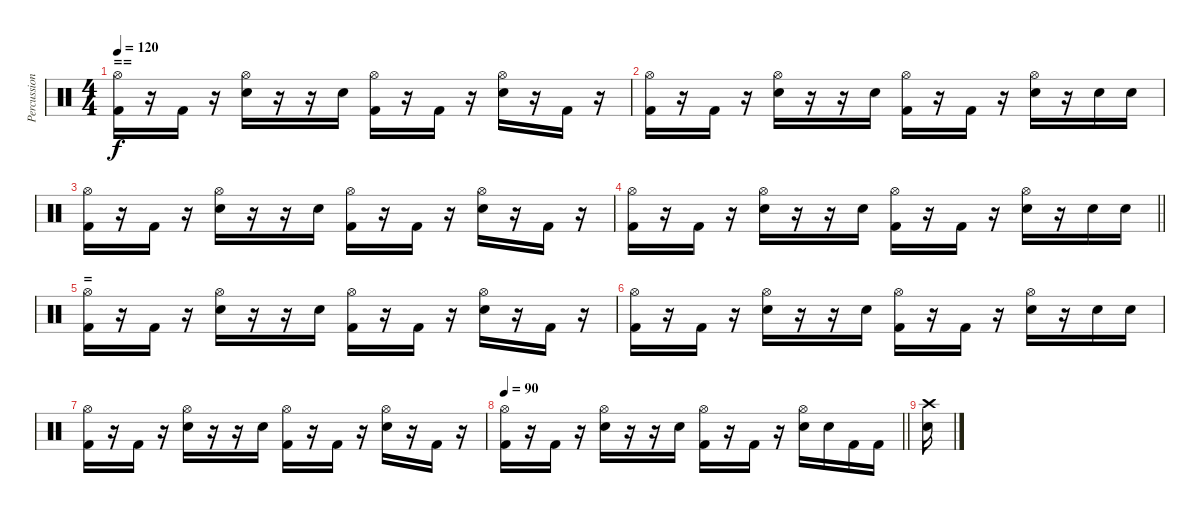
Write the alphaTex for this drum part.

\track ("Percussion" "Percussion") {instrument percussion}
\staff {score}
\articulation defaults
\ts (4 4)
\section ("" "==")
\tempo 120
\clef neutral
\ks c
("Kick (hit) 2" "Hi-Hat (open)").16{dy f} r.16 "Kick (hit) 2".16 r.16 ("Electric Snare (hit)" "Hi-Hat (open)").16 r.16 r.16 "Electric Snare (hit)".16 ("Kick (hit) 2" "Hi-Hat (open)").16 r.16 "Kick (hit) 2".16 r.16 ("Electric Snare (hit)" "Hi-Hat (open)").16 r.16 "Kick (hit) 2".16 r.16 |
("Kick (hit) 2" "Hi-Hat (open)").16 r.16 "Kick (hit) 2".16 r.16 ("Electric Snare (hit)" "Hi-Hat (open)").16 r.16 r.16 "Electric Snare (hit)".16 ("Kick (hit) 2" "Hi-Hat (open)").16 r.16 "Kick (hit) 2".16 r.16 ("Electric Snare (hit)" "Hi-Hat (open)").16 r.16 "Electric Snare (hit)".16 "Electric Snare (hit)".16 |
("Kick (hit) 2" "Hi-Hat (open)").16 r.16 "Kick (hit) 2".16 r.16 ("Electric Snare (hit)" "Hi-Hat (open)").16 r.16 r.16 "Electric Snare (hit)".16 ("Kick (hit) 2" "Hi-Hat (open)").16 r.16 "Kick (hit) 2".16 r.16 ("Electric Snare (hit)" "Hi-Hat (open)").16 r.16 "Kick (hit) 2".16 r.16 |
\barLineRight lightlight
("Kick (hit) 2" "Hi-Hat (open)").16 r.16 "Kick (hit) 2".16 r.16 ("Electric Snare (hit)" "Hi-Hat (open)").16 r.16 r.16 "Electric Snare (hit)".16 ("Kick (hit) 2" "Hi-Hat (open)").16 r.16 "Kick (hit) 2".16 r.16 ("Electric Snare (hit)" "Hi-Hat (open)").16 r.16 "Electric Snare (hit)".16 "Electric Snare (hit)".16 |
\section ("" "=")
("Kick (hit) 2" "Hi-Hat (open)").16 r.16 "Kick (hit) 2".16 r.16 ("Electric Snare (hit)" "Hi-Hat (open)").16 r.16 r.16 "Electric Snare (hit)".16 ("Kick (hit) 2" "Hi-Hat (open)").16 r.16 "Kick (hit) 2".16 r.16 ("Electric Snare (hit)" "Hi-Hat (open)").16 r.16 "Kick (hit) 2".16 r.16 |
("Kick (hit) 2" "Hi-Hat (open)").16 r.16 "Kick (hit) 2".16 r.16 ("Electric Snare (hit)" "Hi-Hat (open)").16 r.16 r.16 "Electric Snare (hit)".16 ("Kick (hit) 2" "Hi-Hat (open)").16 r.16 "Kick (hit) 2".16 r.16 ("Electric Snare (hit)" "Hi-Hat (open)").16 r.16 "Electric Snare (hit)".16 "Electric Snare (hit)".16 |
("Kick (hit) 2" "Hi-Hat (open)").16 r.16 "Kick (hit) 2".16 r.16 ("Electric Snare (hit)" "Hi-Hat (open)").16 r.16 r.16 "Electric Snare (hit)".16 ("Kick (hit) 2" "Hi-Hat (open)").16 r.16 "Kick (hit) 2".16 r.16 ("Electric Snare (hit)" "Hi-Hat (open)").16 r.16 "Kick (hit) 2".16 r.16 |
\tempo 90
\barLineRight lightlight
("Kick (hit) 2" "Hi-Hat (open)").16 r.16 "Kick (hit) 2".16 r.16 ("Electric Snare (hit)" "Hi-Hat (open)").16 r.16 r.16 "Electric Snare (hit)".16 ("Kick (hit) 2" "Hi-Hat (open)").16 r.16 "Kick (hit) 2".16 r.16 ("Electric Snare (hit)" "Hi-Hat (open)").16 "Electric Snare (hit)".16 "Kick (hit) 2".16 "Kick (hit) 2".16 |
("Electric Snare (hit)" "Crash high (hit)").16
